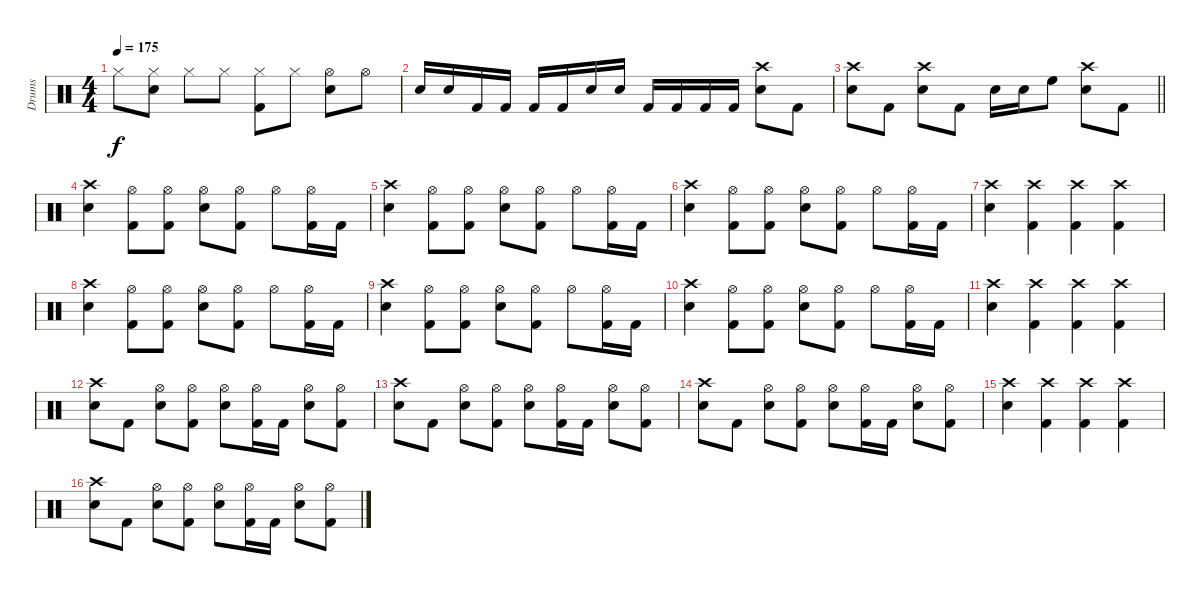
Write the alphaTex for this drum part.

\track ("Drums" "Drums") {instrument percussion}
\staff {score}
\articulation defaults
\ts (4 4)
\tempo 175
\clef neutral
\ks c "Hi-Hat (closed)".8{dy f}
("Hi-Hat (closed)" "Snare (hit) 2").8 "Hi-Hat (closed)".8 "Hi-Hat (closed)".8 ("Hi-Hat (closed)" "Kick (hit) 2").8 "Hi-Hat (closed)".8 ("Hi-Hat (open)" "Snare (hit) 2").8 "Hi-Hat (open)".8 |
"Snare (hit) 2".16 "Snare (hit) 2".16 "Kick (hit) 2".16 "Kick (hit) 2".16 "Kick (hit) 2".16 "Kick (hit) 2".16 "Snare (hit) 2".16 "Snare (hit) 2".16 "Kick (hit) 2".16 "Kick (hit) 2".16 "Kick (hit) 2".16 "Kick (hit) 2".16 ("Crash high (hit)" "Snare (hit) 2").8 "Kick (hit) 2".8 |
\barLineRight lightlight
("Crash high (hit)" "Snare (hit) 2").8 "Kick (hit) 2".8 ("Crash high (hit)" "Snare (hit) 2").8 "Kick (hit) 2".8 "Snare (hit) 2".16 "Snare (hit) 2".16 "High Floor Tom (hit)".8 ("Crash high (hit)" "Snare (hit) 2").8 "Kick (hit) 2".8 |
("Crash high (hit)" "Snare (hit) 2").4 ("Hi-Hat (open)" "Kick (hit) 2").8 ("Hi-Hat (open)" "Kick (hit) 2").8 ("Hi-Hat (open)" "Snare (hit) 2").8 ("Hi-Hat (open)" "Kick (hit) 2").8 "Hi-Hat (open)".8 ("Hi-Hat (open)" "Kick (hit) 2").16 "Kick (hit) 2".16 |
("Crash high (hit)" "Snare (hit) 2").4 ("Hi-Hat (open)" "Kick (hit) 2").8 ("Hi-Hat (open)" "Kick (hit) 2").8 ("Hi-Hat (open)" "Snare (hit) 2").8 ("Hi-Hat (open)" "Kick (hit) 2").8 "Hi-Hat (open)".8 ("Hi-Hat (open)" "Kick (hit) 2").16 "Kick (hit) 2".16 |
("Crash high (hit)" "Snare (hit) 2").4 ("Hi-Hat (open)" "Kick (hit) 2").8 ("Hi-Hat (open)" "Kick (hit) 2").8 ("Hi-Hat (open)" "Snare (hit) 2").8 ("Hi-Hat (open)" "Kick (hit) 2").8 "Hi-Hat (open)".8 ("Hi-Hat (open)" "Kick (hit) 2").16 "Kick (hit) 2".16 |
("Crash high (hit)" "Snare (hit) 2").4 ("Crash high (hit)" "Kick (hit) 2").4 ("Crash high (hit)" "Kick (hit) 2").4 ("Crash high (hit)" "Kick (hit) 2").4 |
("Crash high (hit)" "Snare (hit) 2").4 ("Hi-Hat (open)" "Kick (hit) 2").8 ("Hi-Hat (open)" "Kick (hit) 2").8 ("Hi-Hat (open)" "Snare (hit) 2").8 ("Hi-Hat (open)" "Kick (hit) 2").8 "Hi-Hat (open)".8 ("Hi-Hat (open)" "Kick (hit) 2").16 "Kick (hit) 2".16 |
("Crash high (hit)" "Snare (hit) 2").4 ("Hi-Hat (open)" "Kick (hit) 2").8 ("Hi-Hat (open)" "Kick (hit) 2").8 ("Hi-Hat (open)" "Snare (hit) 2").8 ("Hi-Hat (open)" "Kick (hit) 2").8 "Hi-Hat (open)".8 ("Hi-Hat (open)" "Kick (hit) 2").16 "Kick (hit) 2".16 |
("Crash high (hit)" "Snare (hit) 2").4 ("Hi-Hat (open)" "Kick (hit) 2").8 ("Hi-Hat (open)" "Kick (hit) 2").8 ("Hi-Hat (open)" "Snare (hit) 2").8 ("Hi-Hat (open)" "Kick (hit) 2").8 "Hi-Hat (open)".8 ("Hi-Hat (open)" "Kick (hit) 2").16 "Kick (hit) 2".16 |
("Crash high (hit)" "Snare (hit) 2").4 ("Crash high (hit)" "Kick (hit) 2").4 ("Crash high (hit)" "Kick (hit) 2").4 ("Crash high (hit)" "Kick (hit) 2").4 |
("Crash high (hit)" "Snare (hit) 2").8 "Kick (hit) 2".8 ("Hi-Hat (open)" "Snare (hit) 2").8 ("Hi-Hat (open)" "Kick (hit) 2").8 ("Hi-Hat (open)" "Snare (hit) 2").8 ("Hi-Hat (open)" "Kick (hit) 2").16 "Kick (hit) 2".16 ("Hi-Hat (open)" "Snare (hit) 2").8 ("Hi-Hat (open)" "Kick (hit) 2").8 |
("Crash high (hit)" "Snare (hit) 2").8 "Kick (hit) 2".8 ("Hi-Hat (open)" "Snare (hit) 2").8 ("Hi-Hat (open)" "Kick (hit) 2").8 ("Hi-Hat (open)" "Snare (hit) 2").8 ("Hi-Hat (open)" "Kick (hit) 2").16 "Kick (hit) 2".16 ("Hi-Hat (open)" "Snare (hit) 2").8 ("Hi-Hat (open)" "Kick (hit) 2").8 |
("Crash high (hit)" "Snare (hit) 2").8 "Kick (hit) 2".8 ("Hi-Hat (open)" "Snare (hit) 2").8 ("Hi-Hat (open)" "Kick (hit) 2").8 ("Hi-Hat (open)" "Snare (hit) 2").8 ("Hi-Hat (open)" "Kick (hit) 2").16 "Kick (hit) 2".16 ("Hi-Hat (open)" "Snare (hit) 2").8 ("Hi-Hat (open)" "Kick (hit) 2").8 |
("Crash high (hit)" "Snare (hit) 2").4 ("Crash high (hit)" "Kick (hit) 2").4 ("Crash high (hit)" "Kick (hit) 2").4 ("Crash high (hit)" "Kick (hit) 2").4 |
("Crash high (hit)" "Snare (hit) 2").8 "Kick (hit) 2".8 ("Hi-Hat (open)" "Snare (hit) 2").8 ("Hi-Hat (open)" "Kick (hit) 2").8 ("Hi-Hat (open)" "Snare (hit) 2").8 ("Hi-Hat (open)" "Kick (hit) 2").16 "Kick (hit) 2".16 ("Hi-Hat (open)" "Snare (hit) 2").8 ("Hi-Hat (open)" "Kick (hit) 2").8
